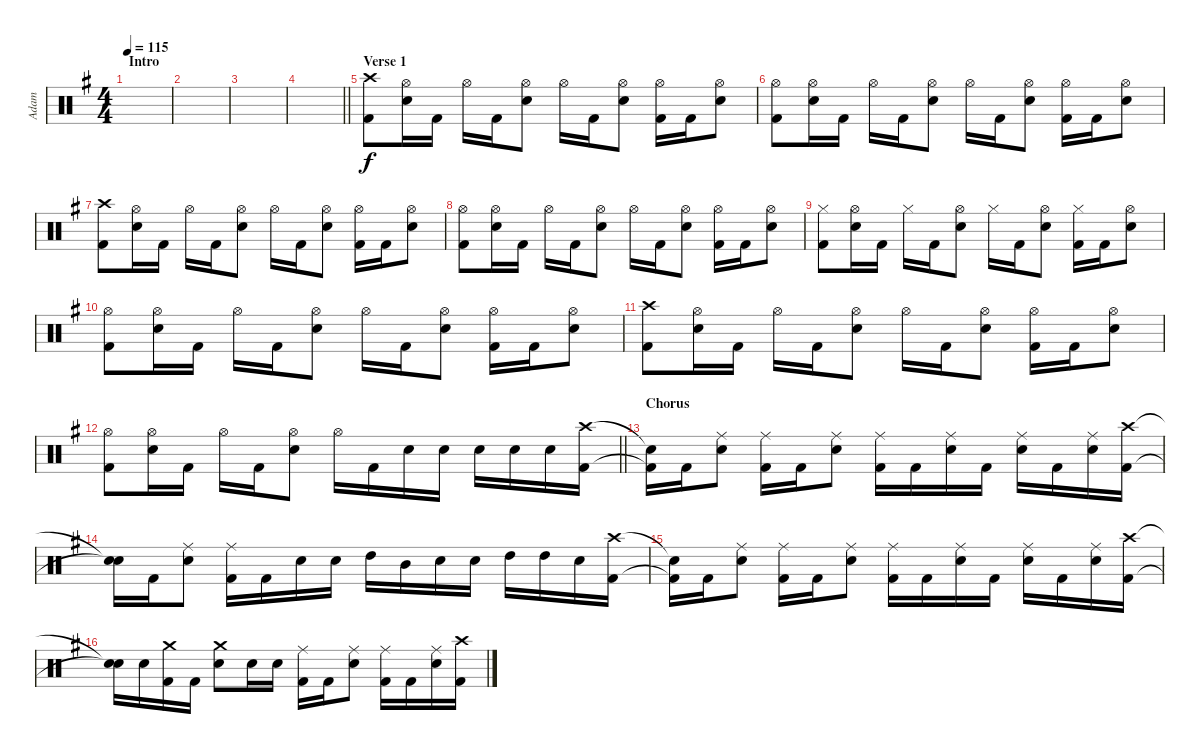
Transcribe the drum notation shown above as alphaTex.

\track ("Adam" "Adam") {instrument percussion}
\staff {score}
\articulation defaults
\ts (4 4)
\section ("" "Intro")
\tempo 115
\clef neutral
\ks g
|
|
|
\barLineRight lightlight
|
\section ("" "Verse 1")
("Crash high (hit)" "Kick (hit) 2").8 ("Hi-Hat (open)" "Snare (hit) 2").16 "Kick (hit) 2".16 "Hi-Hat (open)".16 "Kick (hit) 2".16 ("Hi-Hat (open)" "Snare (hit) 2").8 "Hi-Hat (open)".16 "Kick (hit) 2".16 ("Hi-Hat (open)" "Snare (hit) 2").8 ("Hi-Hat (open)" "Kick (hit) 2").16 "Kick (hit) 2".16 ("Hi-Hat (open)" "Snare (hit) 2").8 |
("Hi-Hat (open)" "Kick (hit) 2").8 ("Hi-Hat (open)" "Snare (hit) 2").16 "Kick (hit) 2".16 "Hi-Hat (open)".16 "Kick (hit) 2".16 ("Hi-Hat (open)" "Snare (hit) 2").8 "Hi-Hat (open)".16 "Kick (hit) 2".16 ("Hi-Hat (open)" "Snare (hit) 2").8 ("Hi-Hat (open)" "Kick (hit) 2").16 "Kick (hit) 2".16 ("Hi-Hat (open)" "Snare (hit) 2").8 |
("Crash high (hit)" "Kick (hit) 2").8 ("Hi-Hat (open)" "Snare (hit) 2").16 "Kick (hit) 2".16 "Hi-Hat (open)".16 "Kick (hit) 2".16 ("Hi-Hat (open)" "Snare (hit) 2").8 "Hi-Hat (open)".16 "Kick (hit) 2".16 ("Hi-Hat (open)" "Snare (hit) 2").8 ("Hi-Hat (open)" "Kick (hit) 2").16 "Kick (hit) 2".16 ("Hi-Hat (open)" "Snare (hit) 2").8 |
("Hi-Hat (open)" "Kick (hit) 2").8 ("Hi-Hat (open)" "Snare (hit) 2").16 "Kick (hit) 2".16 "Hi-Hat (open)".16 "Kick (hit) 2".16 ("Hi-Hat (open)" "Snare (hit) 2").8 "Hi-Hat (open)".16 "Kick (hit) 2".16 ("Hi-Hat (open)" "Snare (hit) 2").8 ("Hi-Hat (open)" "Kick (hit) 2").16 "Kick (hit) 2".16 ("Hi-Hat (open)" "Snare (hit) 2").8 |
("Hi-Hat (closed)" "Kick (hit) 2").8 ("Hi-Hat (open)" "Snare (hit) 2").16 "Kick (hit) 2".16 "Hi-Hat (closed)".16 "Kick (hit) 2".16 ("Hi-Hat (open)" "Snare (hit) 2").8 "Hi-Hat (closed)".16 "Kick (hit) 2".16 ("Hi-Hat (open)" "Snare (hit) 2").8 ("Hi-Hat (closed)" "Kick (hit) 2").16 "Kick (hit) 2".16 ("Hi-Hat (open)" "Snare (hit) 2").8 |
("Hi-Hat (open)" "Kick (hit) 2").8 ("Hi-Hat (open)" "Snare (hit) 2").16 "Kick (hit) 2".16 "Hi-Hat (open)".16 "Kick (hit) 2".16 ("Hi-Hat (open)" "Snare (hit) 2").8 "Hi-Hat (open)".16 "Kick (hit) 2".16 ("Hi-Hat (open)" "Snare (hit) 2").8 ("Hi-Hat (open)" "Kick (hit) 2").16 "Kick (hit) 2".16 ("Hi-Hat (open)" "Snare (hit) 2").8 |
("Crash high (hit)" "Kick (hit) 2").8 ("Hi-Hat (open)" "Snare (hit) 2").16 "Kick (hit) 2".16 "Hi-Hat (open)".16 "Kick (hit) 2".16 ("Hi-Hat (open)" "Snare (hit) 2").8 "Hi-Hat (open)".16 "Kick (hit) 2".16 ("Hi-Hat (open)" "Snare (hit) 2").8 ("Hi-Hat (open)" "Kick (hit) 2").16 "Kick (hit) 2".16 ("Hi-Hat (open)" "Snare (hit) 2").8 |
\barLineRight lightlight
("Hi-Hat (open)" "Kick (hit) 2").8 ("Hi-Hat (open)" "Snare (hit) 2").16 "Kick (hit) 2".16 "Hi-Hat (open)".16 "Kick (hit) 2".16 ("Hi-Hat (open)" "Snare (hit) 2").8 "Hi-Hat (open)".16 "Kick (hit) 2".16 "Snare (hit) 2".16 "Snare (hit) 2".16 "Snare (hit) 2".16 "Snare (hit) 2".16 "Snare (hit) 2".16 ("Crash high (hit)" "Kick (hit) 2").16 |
\section ("" "Chorus")
("Snare (hit)"{t} "Kick (hit) 2"{t}).16 "Kick (hit) 2".16 ("Ride (middle)" "Snare (hit) 2").8 ("Ride (middle)" "Kick (hit) 2").16 "Kick (hit) 2".16 ("Ride (middle)" "Snare (hit) 2").8 ("Ride (middle)" "Kick (hit) 2").16 "Kick (hit) 2".16 ("Ride (middle)" "Snare (hit) 2").16 "Kick (hit) 2".16 ("Ride (middle)" "Snare (hit) 2").16 "Kick (hit) 2".16 ("Ride (middle)" "Snare (hit) 2").16 ("Crash high (hit)" "Kick (hit) 2").16 |
("Snare (hit)"{t} "Snare (hit)"{t}).16 "Kick (hit) 2".16 ("Ride (middle)" "Snare (hit) 2").8 ("Ride (middle)" "Kick (hit) 2").16 "Kick (hit) 2".16 "Snare (hit) 2".16 "Snare (hit) 2".16 "High Tom (hit)".16 "Mid Tom (hit)".16 "Snare (hit) 2".16 "Snare (hit) 2".16 "High Tom (hit)".16 "High Tom (hit)".16 "Snare (hit) 2".16 ("Crash high (hit)" "Kick (hit) 2").16 |
("Snare (hit)"{t} "Kick (hit) 2"{t}).16 "Kick (hit) 2".16 ("Ride (middle)" "Snare (hit) 2").8 ("Ride (middle)" "Kick (hit) 2").16 "Kick (hit) 2".16 ("Ride (middle)" "Snare (hit) 2").8 ("Ride (middle)" "Kick (hit) 2").16 "Kick (hit) 2".16 ("Ride (middle)" "Snare (hit) 2").16 "Kick (hit) 2".16 ("Ride (middle)" "Snare (hit) 2").16 "Kick (hit) 2".16 ("Ride (middle)" "Snare (hit) 2").16 ("Crash high (hit)" "Kick (hit) 2").16 |
("Snare (hit)"{t} "Snare (hit)"{t}).16 "Snare (hit) 2".16 ("Crash medium (hit)" "Kick (hit) 2").16 "Kick (hit) 2".16 ("Crash medium (hit)" "Snare (hit) 2").8 "Snare (hit) 2".16 "Snare (hit) 2".16 ("Ride (middle)" "Kick (hit) 2").16 "Kick (hit) 2".16 ("Ride (middle)" "Snare (hit) 2").8 ("Ride (middle)" "Kick (hit) 2").16 "Kick (hit) 2".16 ("Ride (middle)" "Snare (hit) 2").16 ("Crash high (hit)" "Kick (hit) 2").16
